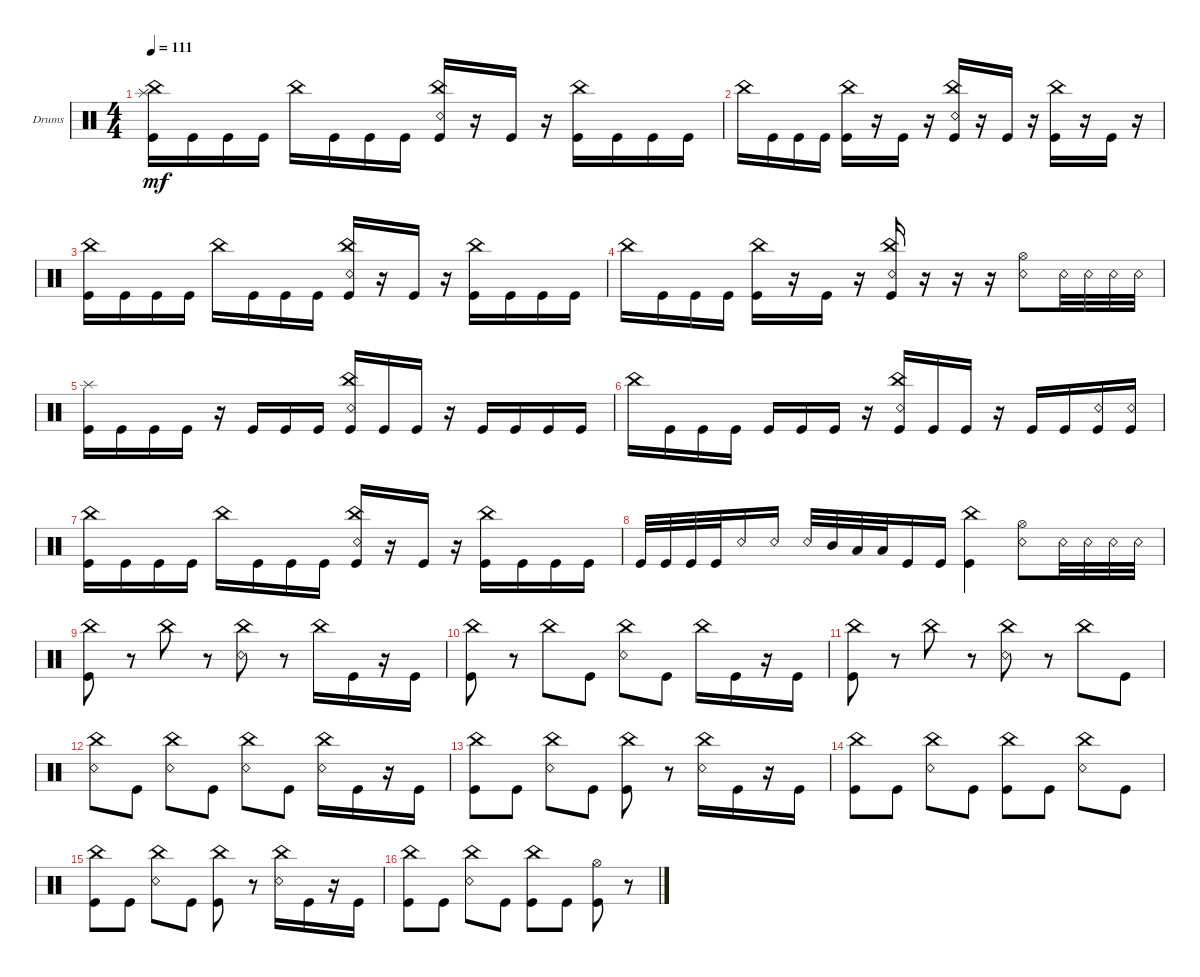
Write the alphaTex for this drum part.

\defaultSystemsLayout 4
\bracketExtendMode groupsimilarinstruments
\firstSystemTrackNameOrientation horizontal
\otherSystemsTrackNameOrientation horizontal
\track ("Drumkit" "Drums") {instrument percussion}
\staff {score}
\articulation defaults
\ts (4 4)
\tempo 111
\clef neutral
\ks c
("Kick (hit)" "China (hit)" "Splash (hit)").16{dy mf} "Kick (hit)".16 "Kick (hit)".16 "Kick (hit)".16 "China (hit)".16 "Kick (hit)".16 "Kick (hit)".16 "Kick (hit)".16 ("Kick (hit)" "China (hit)" "Snare (rim shot)").16 r.16 "Kick (hit)".16 r.16 ("Kick (hit)" "China (hit)").16 "Kick (hit)".16 "Kick (hit)".16 "Kick (hit)".16 |
"China (hit)".16 "Kick (hit)".16 "Kick (hit)".16 "Kick (hit)".16 ("Kick (hit)" "China (hit)").16 r.16 "Kick (hit)".16 r.16 ("Kick (hit)" "China (hit)" "Snare (rim shot)").16 r.16 "Kick (hit)".16 r.16 ("Kick (hit)" "China (hit)").16 r.16 "Kick (hit)".16 r.16 |
("Kick (hit)" "China (hit)").16 "Kick (hit)".16 "Kick (hit)".16 "Kick (hit)".16 "China (hit)".16 "Kick (hit)".16 "Kick (hit)".16 "Kick (hit)".16 ("Kick (hit)" "China (hit)" "Snare (rim shot)").16 r.16 "Kick (hit)".16 r.16 ("Kick (hit)" "China (hit)").16 "Kick (hit)".16 "Kick (hit)".16 "Kick (hit)".16 |
"China (hit)".16 "Kick (hit)".16 "Kick (hit)".16 "Kick (hit)".16 ("Kick (hit)" "China (hit)").16 r.16 "Kick (hit)".16 r.16 ("Kick (hit)" "China (hit)" "Snare (rim shot)").16 r.16 r.16 r.16 ("Snare (rim shot)" "Hi-Hat (open)").8 "Snare (rim shot)".32 "Snare (rim shot)".32 "Snare (rim shot)".32 "Snare (rim shot)".32 |
("Kick (hit)" "Splash (hit)").16 "Kick (hit)".16 "Kick (hit)".16 "Kick (hit)".16 r.16 "Kick (hit)".16 "Kick (hit)".16 "Kick (hit)".16 ("Kick (hit)" "China (hit)" "Snare (rim shot)").16 "Kick (hit)".16 "Kick (hit)".16 r.16 "Kick (hit)".16 "Kick (hit)".16 "Kick (hit)".16 "Kick (hit)".16 |
"China (hit)".16 "Kick (hit)".16 "Kick (hit)".16 "Kick (hit)".16 "Kick (hit)".16 "Kick (hit)".16 "Kick (hit)".16 r.16 ("Snare (rim shot)" "China (hit)" "Kick (hit)").16 "Kick (hit)".16 "Kick (hit)".16 r.16 "Kick (hit)".16 "Kick (hit)".16 ("Kick (hit)" "Snare (rim shot)").16 ("Kick (hit)" "Snare (rim shot)").16 |
("Kick (hit)" "China (hit)").16 "Kick (hit)".16 "Kick (hit)".16 "Kick (hit)".16 "China (hit)".16 "Kick (hit)".16 "Kick (hit)".16 "Kick (hit)".16 ("Kick (hit)" "China (hit)" "Snare (rim shot)").16 r.16 "Kick (hit)".16 r.16 ("Kick (hit)" "China (hit)").16 "Kick (hit)".16 "Kick (hit)".16 "Kick (hit)".16 |
"Kick (hit)".32 "Kick (hit)".32 "Kick (hit)".32 "Kick (hit)".32 "Snare (rim shot)".16 "Snare (rim shot)".16 "Snare (rim shot)".32 "Mid Tom (hit)".32 "Low Tom (hit)".32 "Low Tom (hit)".32 "Kick (hit)".16 "Kick (hit)".16 ("China (hit)" "Kick (hit)").4 ("Snare (rim shot)" "Hi-Hat (open)").8 "Snare (rim shot)".32 "Snare (rim shot)".32 "Snare (rim shot)".32 "Snare (rim shot)".32 |
("China (hit)" "Kick (hit)").8 r.8 "China (hit)".8 r.8 ("China (hit)" "Snare (rim shot)").8 r.8 "China (hit)".16 "Kick (hit)".16 r.16 "Kick (hit)".16 |
("China (hit)" "Kick (hit)").8 r.8 "China (hit)".8 "Kick (hit)".8 ("China (hit)" "Snare (rim shot)").8 "Kick (hit)".8 "China (hit)".16 "Kick (hit)".16 r.16 "Kick (hit)".16 |
("China (hit)" "Kick (hit)").8 r.8 "China (hit)".8 r.8 ("China (hit)" "Snare (rim shot)").8 r.8 "China (hit)".8 "Kick (hit)".8 |
("China (hit)" "Snare (rim shot)").8 "Kick (hit)".8 ("China (hit)" "Snare (rim shot)").8 "Kick (hit)".8 ("China (hit)" "Snare (rim shot)").8 "Kick (hit)".8 ("China (hit)" "Snare (rim shot)").16 "Kick (hit)".16 r.16 "Kick (hit)".16 |
("China (hit)" "Kick (hit)").8 "Kick (hit)".8 ("Snare (rim shot)" "China (hit)").8 "Kick (hit)".8 ("Kick (hit)" "China (hit)").8 r.8 ("Snare (rim shot)" "China (hit)").16 "Kick (hit)".16 r.16 "Kick (hit)".16 |
("China (hit)" "Kick (hit)").8 "Kick (hit)".8 ("Snare (rim shot)" "China (hit)").8 "Kick (hit)".8 ("Kick (hit)" "China (hit)").8 "Kick (hit)".8 ("Snare (rim shot)" "China (hit)").8 "Kick (hit)".8 |
("China (hit)" "Kick (hit)").8 "Kick (hit)".8 ("Snare (rim shot)" "China (hit)").8 "Kick (hit)".8 ("Kick (hit)" "China (hit)").8 r.8 ("Snare (rim shot)" "China (hit)").16 "Kick (hit)".16 r.16 "Kick (hit)".16 |
("China (hit)" "Kick (hit)").8 "Kick (hit)".8 ("Snare (rim shot)" "China (hit)").8 "Kick (hit)".8 ("Kick (hit)" "China (hit)").8 "Kick (hit)".8 ("Kick (hit)" "Hi-Hat (open)").8 r.8
